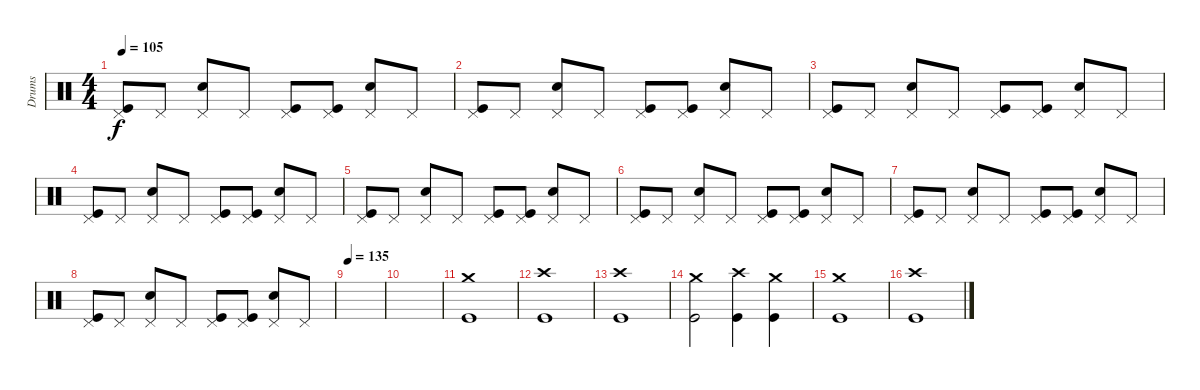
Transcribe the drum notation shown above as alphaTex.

\track ("Drums" "Drums") {instrument percussion}
\staff {score}
\articulation defaults
\ts (4 4)
\tempo 105
\clef neutral
\ks c
("Kick (hit)" "Pedal Hi-Hat (hit)").8{dy f} "Pedal Hi-Hat (hit)".8 ("Snare (hit) 2" "Pedal Hi-Hat (hit)").8 "Pedal Hi-Hat (hit)".8 ("Kick (hit)" "Pedal Hi-Hat (hit)").8 ("Kick (hit)" "Pedal Hi-Hat (hit)").8 ("Snare (hit) 2" "Pedal Hi-Hat (hit)").8 "Pedal Hi-Hat (hit)".8 |
("Kick (hit)" "Pedal Hi-Hat (hit)").8 "Pedal Hi-Hat (hit)".8 ("Snare (hit) 2" "Pedal Hi-Hat (hit)").8 "Pedal Hi-Hat (hit)".8 ("Kick (hit)" "Pedal Hi-Hat (hit)").8 ("Kick (hit)" "Pedal Hi-Hat (hit)").8 ("Snare (hit) 2" "Pedal Hi-Hat (hit)").8 "Pedal Hi-Hat (hit)".8 |
("Kick (hit)" "Pedal Hi-Hat (hit)").8 "Pedal Hi-Hat (hit)".8 ("Snare (hit) 2" "Pedal Hi-Hat (hit)").8 "Pedal Hi-Hat (hit)".8 ("Kick (hit)" "Pedal Hi-Hat (hit)").8 ("Kick (hit)" "Pedal Hi-Hat (hit)").8 ("Snare (hit) 2" "Pedal Hi-Hat (hit)").8 "Pedal Hi-Hat (hit)".8 |
("Kick (hit)" "Pedal Hi-Hat (hit)").8 "Pedal Hi-Hat (hit)".8 ("Snare (hit) 2" "Pedal Hi-Hat (hit)").8 "Pedal Hi-Hat (hit)".8 ("Kick (hit)" "Pedal Hi-Hat (hit)").8 ("Kick (hit)" "Pedal Hi-Hat (hit)").8 ("Snare (hit) 2" "Pedal Hi-Hat (hit)").8 "Pedal Hi-Hat (hit)".8 |
("Kick (hit)" "Pedal Hi-Hat (hit)").8 "Pedal Hi-Hat (hit)".8 ("Snare (hit) 2" "Pedal Hi-Hat (hit)").8 "Pedal Hi-Hat (hit)".8 ("Kick (hit)" "Pedal Hi-Hat (hit)").8 ("Kick (hit)" "Pedal Hi-Hat (hit)").8 ("Snare (hit) 2" "Pedal Hi-Hat (hit)").8 "Pedal Hi-Hat (hit)".8 |
("Kick (hit)" "Pedal Hi-Hat (hit)").8 "Pedal Hi-Hat (hit)".8 ("Snare (hit) 2" "Pedal Hi-Hat (hit)").8 "Pedal Hi-Hat (hit)".8 ("Kick (hit)" "Pedal Hi-Hat (hit)").8 ("Kick (hit)" "Pedal Hi-Hat (hit)").8 ("Snare (hit) 2" "Pedal Hi-Hat (hit)").8 "Pedal Hi-Hat (hit)".8 |
("Kick (hit)" "Pedal Hi-Hat (hit)").8 "Pedal Hi-Hat (hit)".8 ("Snare (hit) 2" "Pedal Hi-Hat (hit)").8 "Pedal Hi-Hat (hit)".8 ("Kick (hit)" "Pedal Hi-Hat (hit)").8 ("Kick (hit)" "Pedal Hi-Hat (hit)").8 ("Snare (hit) 2" "Pedal Hi-Hat (hit)").8 "Pedal Hi-Hat (hit)".8 |
("Kick (hit)" "Pedal Hi-Hat (hit)").8 "Pedal Hi-Hat (hit)".8 ("Snare (hit) 2" "Pedal Hi-Hat (hit)").8 "Pedal Hi-Hat (hit)".8 ("Kick (hit)" "Pedal Hi-Hat (hit)").8 ("Kick (hit)" "Pedal Hi-Hat (hit)").8 ("Snare (hit) 2" "Pedal Hi-Hat (hit)").8 "Pedal Hi-Hat (hit)".8 |
\tempo 135
|
|
("Kick (hit)" "Crash medium (hit)").1 |
("Kick (hit)" "Crash high (hit)").1 |
("Kick (hit)" "Crash high (hit)").1 |
("Kick (hit)" "Crash medium (hit)").2 ("Kick (hit)" "Crash high (hit)").4 ("Kick (hit)" "Crash medium (hit)").4 |
("Kick (hit)" "Crash medium (hit)").1 |
("Kick (hit)" "Crash high (hit)").1
